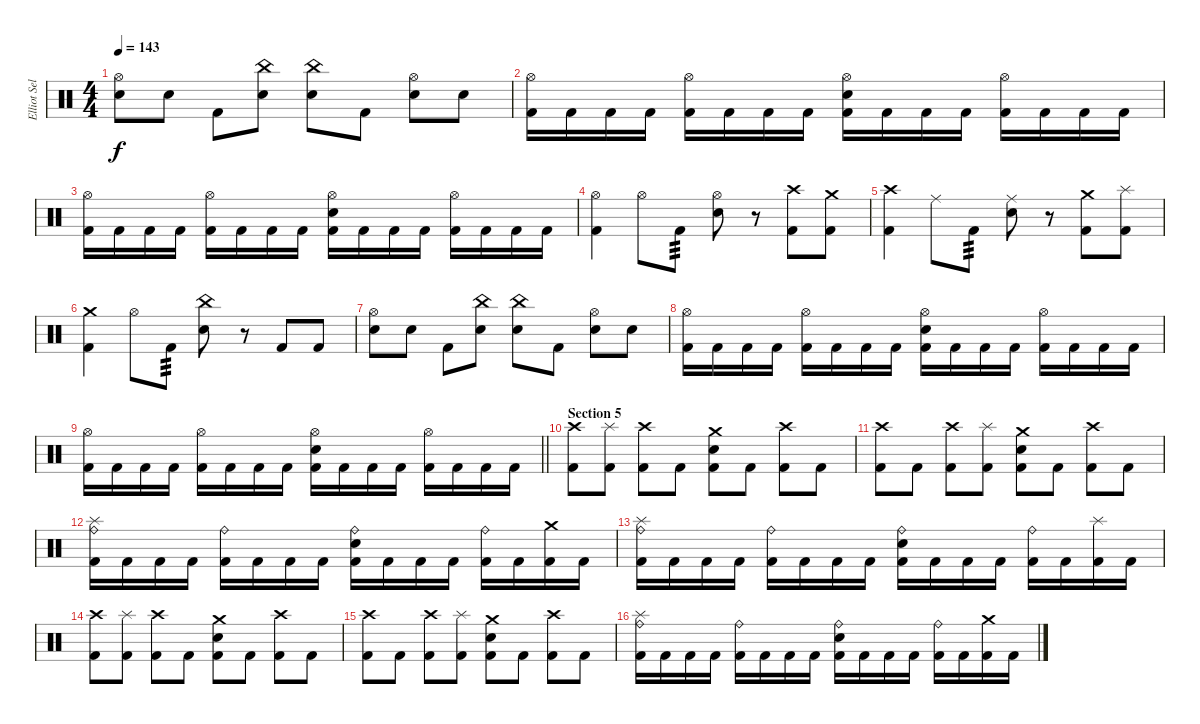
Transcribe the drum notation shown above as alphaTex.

\track ("Elliot Sellers" "Elliot Sel") {instrument percussion}
\staff {score}
\articulation defaults
\ts (4 4)
\tempo 143
\clef neutral
\ks c
("Hi-Hat (open)" "Electric Snare (hit)").8{dy f} "Electric Snare (hit)".8 "Kick (hit) 2".8 ("China (hit)" "Electric Snare (hit)").8 ("China (hit)" "Electric Snare (hit)").8 "Kick (hit) 2".8 ("Hi-Hat (open)" "Electric Snare (hit)").8 "Electric Snare (hit)".8 |
("Kick (hit) 2" "Hi-Hat (open)").16 "Kick (hit) 2".16 "Kick (hit) 2".16 "Kick (hit) 2".16 ("Kick (hit) 2" "Hi-Hat (open)").16 "Kick (hit) 2".16 "Kick (hit) 2".16 "Kick (hit) 2".16 ("Kick (hit) 2" "Hi-Hat (open)" "Electric Snare (hit)").16 "Kick (hit) 2".16 "Kick (hit) 2".16 "Kick (hit) 2".16 ("Kick (hit) 2" "Hi-Hat (open)").16 "Kick (hit) 2".16 "Kick (hit) 2".16 "Kick (hit) 2".16 |
("Kick (hit) 2" "Hi-Hat (open)").16 "Kick (hit) 2".16 "Kick (hit) 2".16 "Kick (hit) 2".16 ("Kick (hit) 2" "Hi-Hat (open)").16 "Kick (hit) 2".16 "Kick (hit) 2".16 "Kick (hit) 2".16 ("Kick (hit) 2" "Hi-Hat (open)" "Electric Snare (hit)").16 "Kick (hit) 2".16 "Kick (hit) 2".16 "Kick (hit) 2".16 ("Kick (hit) 2" "Hi-Hat (open)").16 "Kick (hit) 2".16 "Kick (hit) 2".16 "Kick (hit) 2".16 |
("Hi-Hat (open)" "Kick (hit) 2").4 "Hi-Hat (open)".8 "Kick (hit) 2".8{tp 3} ("Hi-Hat (open)" "Electric Snare (hit)").8 r.8 ("Crash high (hit)" "Kick (hit) 2").8 ("Crash medium (hit)" "Kick (hit) 2").8 |
("Crash high (hit)" "Kick (hit) 2").4 "Ride (middle)".8 "Kick (hit) 2".8{tp 3} ("Ride (middle)" "Electric Snare (hit)").8 r.8 ("Crash medium (hit)" "Kick (hit) 2").8 ("Splash (hit)" "Kick (hit) 2").8 |
("Crash medium (hit)" "Kick (hit) 2").4 "Hi-Hat (open)".8 "Kick (hit) 2".8{tp 3} ("China (hit)" "Electric Snare (hit)").8 r.8 "Kick (hit) 2".8 "Kick (hit) 2".8 |
("Hi-Hat (open)" "Electric Snare (hit)").8 "Electric Snare (hit)".8 "Kick (hit) 2".8 ("China (hit)" "Electric Snare (hit)").8 ("China (hit)" "Electric Snare (hit)").8 "Kick (hit) 2".8 ("Hi-Hat (open)" "Electric Snare (hit)").8 "Electric Snare (hit)".8 |
("Kick (hit) 2" "Hi-Hat (open)").16 "Kick (hit) 2".16 "Kick (hit) 2".16 "Kick (hit) 2".16 ("Kick (hit) 2" "Hi-Hat (open)").16 "Kick (hit) 2".16 "Kick (hit) 2".16 "Kick (hit) 2".16 ("Kick (hit) 2" "Hi-Hat (open)" "Electric Snare (hit)").16 "Kick (hit) 2".16 "Kick (hit) 2".16 "Kick (hit) 2".16 ("Kick (hit) 2" "Hi-Hat (open)").16 "Kick (hit) 2".16 "Kick (hit) 2".16 "Kick (hit) 2".16 |
\barLineRight lightlight
("Kick (hit) 2" "Hi-Hat (open)").16 "Kick (hit) 2".16 "Kick (hit) 2".16 "Kick (hit) 2".16 ("Kick (hit) 2" "Hi-Hat (open)").16 "Kick (hit) 2".16 "Kick (hit) 2".16 "Kick (hit) 2".16 ("Kick (hit) 2" "Hi-Hat (open)" "Electric Snare (hit)").16 "Kick (hit) 2".16 "Kick (hit) 2".16 "Kick (hit) 2".16 ("Kick (hit) 2" "Hi-Hat (open)").16 "Kick (hit) 2".16 "Kick (hit) 2".16 "Kick (hit) 2".16 |
\section ("" "Section 5")
("Kick (hit) 2" "Crash high (hit)").8 ("Kick (hit) 2" "Splash (hit)").8 ("Kick (hit) 2" "Crash high (hit)").8 "Kick (hit) 2".8 ("Kick (hit) 2" "Electric Snare (hit)" "Crash medium (hit)").8 "Kick (hit) 2".8 ("Kick (hit) 2" "Crash high (hit)").8 "Kick (hit) 2".8 |
("Kick (hit) 2" "Crash high (hit)").8 "Kick (hit) 2".8 ("Kick (hit) 2" "Crash high (hit)").8 ("Kick (hit) 2" "Splash (hit)").8 ("Kick (hit) 2" "Electric Snare (hit)" "Crash medium (hit)").8 "Kick (hit) 2".8 ("Kick (hit) 2" "Crash high (hit)").8 "Kick (hit) 2".8 |
("Kick (hit) 2" "Ride (bell)" "Splash (hit)").16 "Kick (hit) 2".16 "Kick (hit) 2".16 "Kick (hit) 2".16 ("Kick (hit) 2" "Ride (bell)").16 "Kick (hit) 2".16 "Kick (hit) 2".16 "Kick (hit) 2".16 ("Kick (hit) 2" "Ride (bell)" "Electric Snare (hit)").16 "Kick (hit) 2".16 "Kick (hit) 2".16 "Kick (hit) 2".16 ("Kick (hit) 2" "Ride (bell)").16 "Kick (hit) 2".16 ("Kick (hit) 2" "Crash medium (hit)").16 "Kick (hit) 2".16 |
("Kick (hit) 2" "Ride (bell)" "Splash (hit)").16 "Kick (hit) 2".16 "Kick (hit) 2".16 "Kick (hit) 2".16 ("Kick (hit) 2" "Ride (bell)").16 "Kick (hit) 2".16 "Kick (hit) 2".16 "Kick (hit) 2".16 ("Kick (hit) 2" "Ride (bell)" "Electric Snare (hit)").16 "Kick (hit) 2".16 "Kick (hit) 2".16 "Kick (hit) 2".16 ("Kick (hit) 2" "Ride (bell)").16 "Kick (hit) 2".16 ("Kick (hit) 2" "Splash (hit)").16 "Kick (hit) 2".16 |
("Kick (hit) 2" "Crash high (hit)").8 ("Kick (hit) 2" "Splash (hit)").8 ("Kick (hit) 2" "Crash high (hit)").8 "Kick (hit) 2".8 ("Kick (hit) 2" "Electric Snare (hit)" "Crash medium (hit)").8 "Kick (hit) 2".8 ("Kick (hit) 2" "Crash high (hit)").8 "Kick (hit) 2".8 |
("Kick (hit) 2" "Crash high (hit)").8 "Kick (hit) 2".8 ("Kick (hit) 2" "Crash high (hit)").8 ("Kick (hit) 2" "Splash (hit)").8 ("Kick (hit) 2" "Electric Snare (hit)" "Crash medium (hit)").8 "Kick (hit) 2".8 ("Kick (hit) 2" "Crash high (hit)").8 "Kick (hit) 2".8 |
("Kick (hit) 2" "Ride (bell)" "Splash (hit)").16 "Kick (hit) 2".16 "Kick (hit) 2".16 "Kick (hit) 2".16 ("Kick (hit) 2" "Ride (bell)").16 "Kick (hit) 2".16 "Kick (hit) 2".16 "Kick (hit) 2".16 ("Kick (hit) 2" "Ride (bell)" "Electric Snare (hit)").16 "Kick (hit) 2".16 "Kick (hit) 2".16 "Kick (hit) 2".16 ("Kick (hit) 2" "Ride (bell)").16 "Kick (hit) 2".16 ("Kick (hit) 2" "Crash medium (hit)").16 "Kick (hit) 2".16
